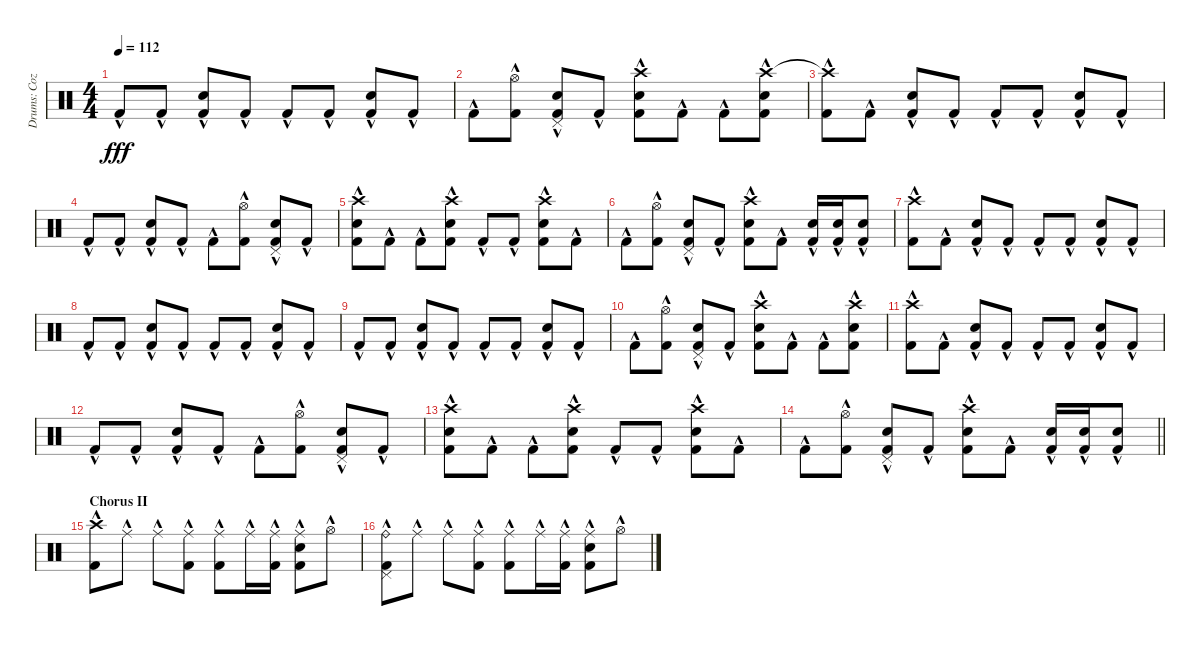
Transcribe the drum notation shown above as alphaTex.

\track ("Drums: Cozy" "Drums: Coz") {instrument percussion}
\staff {score}
\articulation defaults
\ts (4 4)
\tempo 112
\clef neutral
\ks c "Kick (hit) 2"{hac}.8{dy fff} "Kick (hit) 2"{hac}.8
("Snare (hit) 2"{hac} "Kick (hit) 2"{hac}).8 "Kick (hit) 2"{hac}.8 "Kick (hit) 2"{hac}.8 "Kick (hit) 2"{hac}.8 ("Snare (hit) 2"{hac} "Kick (hit) 2"{hac}).8 "Kick (hit) 2"{hac}.8 |
"Kick (hit) 2"{hac}.8 ("Hi-Hat (open)"{hac} "Kick (hit) 2"{hac}).8 ("Pedal Hi-Hat (hit)"{hac} "Snare (hit) 2"{hac} "Kick (hit) 2"{hac}).8 "Kick (hit) 2"{hac}.8 ("Crash high (hit)"{hac} "Snare (hit) 2"{hac} "Kick (hit) 2"{hac}).8 "Kick (hit) 2"{hac}.8 "Kick (hit) 2"{hac}.8 ("Crash high (hit)"{hac} "Snare (hit) 2"{hac} "Kick (hit) 2"{hac}).8 |
("Crash high (hit)"{t} "Kick (hit) 2"{hac}).8 "Kick (hit) 2"{hac}.8 ("Snare (hit) 2"{hac} "Kick (hit) 2"{hac}).8 "Kick (hit) 2"{hac}.8 "Kick (hit) 2"{hac}.8 "Kick (hit) 2"{hac}.8 ("Snare (hit) 2"{hac} "Kick (hit) 2"{hac}).8 "Kick (hit) 2"{hac}.8 |
"Kick (hit) 2"{hac}.8 "Kick (hit) 2"{hac}.8 ("Snare (hit) 2"{hac} "Kick (hit) 2"{hac}).8 "Kick (hit) 2"{hac}.8 "Kick (hit) 2"{hac}.8 ("Hi-Hat (open)"{hac} "Kick (hit) 2"{hac}).8 ("Pedal Hi-Hat (hit)"{hac} "Snare (hit) 2"{hac} "Kick (hit) 2"{hac}).8 "Kick (hit) 2"{hac}.8 |
("Crash high (hit)"{hac} "Snare (hit) 2"{hac} "Kick (hit) 2"{hac}).8 "Kick (hit) 2"{hac}.8 "Kick (hit) 2"{hac}.8 ("Crash high (hit)"{hac} "Snare (hit) 2"{hac} "Kick (hit) 2"{hac}).8 "Kick (hit) 2"{hac}.8 "Kick (hit) 2"{hac}.8 ("Crash high (hit)"{hac} "Snare (hit) 2"{hac} "Kick (hit) 2"{hac}).8 "Kick (hit) 2"{hac}.8 |
"Kick (hit) 2"{hac}.8 ("Hi-Hat (open)"{hac} "Kick (hit) 2"{hac}).8 ("Pedal Hi-Hat (hit)"{hac} "Snare (hit) 2"{hac} "Kick (hit) 2"{hac}).8 "Kick (hit) 2"{hac}.8 ("Crash high (hit)"{hac} "Snare (hit) 2"{hac} "Kick (hit) 2"{hac}).8 "Kick (hit) 2"{hac}.8 ("Snare (hit) 2"{hac} "Kick (hit) 2"{hac}).16 ("Snare (hit) 2"{hac} "Kick (hit) 2"{hac}).16 ("Snare (hit) 2"{hac} "Kick (hit) 2"{hac}).8 |
("Crash high (hit)"{hac} "Kick (hit) 2"{hac}).8 "Kick (hit) 2"{hac}.8 ("Snare (hit) 2"{hac} "Kick (hit) 2"{hac}).8 "Kick (hit) 2"{hac}.8 "Kick (hit) 2"{hac}.8 "Kick (hit) 2"{hac}.8 ("Snare (hit) 2"{hac} "Kick (hit) 2"{hac}).8 "Kick (hit) 2"{hac}.8 |
"Kick (hit) 2"{hac}.8 "Kick (hit) 2"{hac}.8 ("Snare (hit) 2"{hac} "Kick (hit) 2"{hac}).8 "Kick (hit) 2"{hac}.8 "Kick (hit) 2"{hac}.8 "Kick (hit) 2"{hac}.8 ("Snare (hit) 2"{hac} "Kick (hit) 2"{hac}).8 "Kick (hit) 2"{hac}.8 |
"Kick (hit) 2"{hac}.8 "Kick (hit) 2"{hac}.8 ("Snare (hit) 2"{hac} "Kick (hit) 2"{hac}).8 "Kick (hit) 2"{hac}.8 "Kick (hit) 2"{hac}.8 "Kick (hit) 2"{hac}.8 ("Snare (hit) 2"{hac} "Kick (hit) 2"{hac}).8 "Kick (hit) 2"{hac}.8 |
"Kick (hit) 2"{hac}.8 ("Hi-Hat (open)"{hac} "Kick (hit) 2"{hac}).8 ("Pedal Hi-Hat (hit)"{hac} "Snare (hit) 2"{hac} "Kick (hit) 2"{hac}).8 "Kick (hit) 2"{hac}.8 ("Crash high (hit)"{hac} "Snare (hit) 2"{hac} "Kick (hit) 2"{hac}).8 "Kick (hit) 2"{hac}.8 "Kick (hit) 2"{hac}.8 ("Crash high (hit)"{hac} "Snare (hit) 2"{hac} "Kick (hit) 2"{hac}).8 |
("Crash high (hit)"{hac} "Kick (hit) 2"{hac}).8 "Kick (hit) 2"{hac}.8 ("Snare (hit) 2"{hac} "Kick (hit) 2"{hac}).8 "Kick (hit) 2"{hac}.8 "Kick (hit) 2"{hac}.8 "Kick (hit) 2"{hac}.8 ("Snare (hit) 2"{hac} "Kick (hit) 2"{hac}).8 "Kick (hit) 2"{hac}.8 |
"Kick (hit) 2"{hac}.8 "Kick (hit) 2"{hac}.8 ("Snare (hit) 2"{hac} "Kick (hit) 2"{hac}).8 "Kick (hit) 2"{hac}.8 "Kick (hit) 2"{hac}.8 ("Hi-Hat (open)"{hac} "Kick (hit) 2"{hac}).8 ("Pedal Hi-Hat (hit)"{hac} "Snare (hit) 2"{hac} "Kick (hit) 2"{hac}).8 "Kick (hit) 2"{hac}.8 |
("Crash high (hit)"{hac} "Snare (hit) 2"{hac} "Kick (hit) 2"{hac}).8 "Kick (hit) 2"{hac}.8 "Kick (hit) 2"{hac}.8 ("Crash high (hit)"{hac} "Snare (hit) 2"{hac} "Kick (hit) 2"{hac}).8 "Kick (hit) 2"{hac}.8 "Kick (hit) 2"{hac}.8 ("Crash high (hit)"{hac} "Snare (hit) 2"{hac} "Kick (hit) 2"{hac}).8 "Kick (hit) 2"{hac}.8 |
\barLineRight lightlight "Kick (hit) 2"{hac}.8
("Hi-Hat (open)"{hac} "Kick (hit) 2"{hac}).8 ("Pedal Hi-Hat (hit)"{hac} "Snare (hit) 2"{hac} "Kick (hit) 2"{hac}).8 "Kick (hit) 2"{hac}.8 ("Crash high (hit)"{hac} "Snare (hit) 2"{hac} "Kick (hit) 2"{hac}).8 "Kick (hit) 2"{hac}.8 ("Snare (hit) 2"{hac} "Kick (hit) 2"{hac}).16 ("Snare (hit) 2"{hac} "Kick (hit) 2"{hac}).16 ("Snare (hit) 2"{hac} "Kick (hit) 2"{hac}).8 |
\section ("" "Chorus II")
("Crash high (hit)"{hac} "Kick (hit) 2"{hac}).8 "Ride (middle)"{hac}.8 "Ride (middle)"{hac}.8 ("Ride (middle)"{hac} "Kick (hit) 2"{hac}).8 ("Ride (middle)"{hac} "Kick (hit) 2"{hac}).8 "Ride (middle)"{hac}.16 ("Ride (middle)"{hac} "Kick (hit) 2"{hac}).16 ("Ride (middle)"{hac} "Electric Snare (hit)"{hac} "Kick (hit) 2"{hac}).8 "Hi-Hat (open)"{hac}.8 |
("Ride (bell)"{hac} "Pedal Hi-Hat (hit)"{hac} "Kick (hit) 2"{hac}).8 "Ride (middle)"{hac}.8 "Ride (middle)"{hac}.8 ("Ride (middle)"{hac} "Kick (hit) 2"{hac}).8 ("Ride (middle)"{hac} "Kick (hit) 2"{hac}).8 "Ride (middle)"{hac}.16 ("Ride (middle)"{hac} "Kick (hit) 2"{hac}).16 ("Ride (middle)"{hac} "Electric Snare (hit)"{hac} "Kick (hit) 2"{hac}).8 "Hi-Hat (open)"{hac}.8
